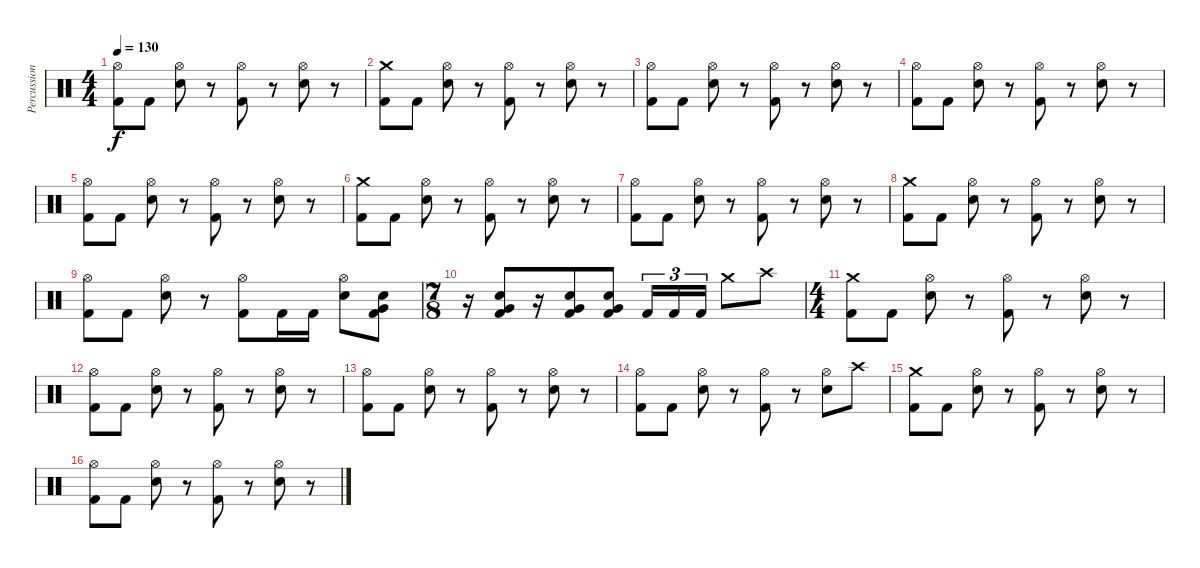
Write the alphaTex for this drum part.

\track ("Percussions" "Percussion") {instrument percussion}
\staff {score}
\articulation defaults
\ts (4 4)
\tempo 130
\clef neutral
\ks c
("Hi-Hat (open)" "Kick (hit) 2").8{dy f} "Kick (hit) 2".8 ("Hi-Hat (open)" "Electric Snare (hit)").8 r.8 ("Hi-Hat (open)" "Kick (hit) 2").8 r.8 ("Hi-Hat (open)" "Electric Snare (hit)").8 r.8 |
("Crash medium (hit)" "Kick (hit) 2").8{volume 14} "Kick (hit) 2".8 ("Hi-Hat (open)" "Electric Snare (hit)").8 r.8 ("Hi-Hat (open)" "Kick (hit) 2").8 r.8 ("Hi-Hat (open)" "Electric Snare (hit)").8 r.8 |
("Hi-Hat (open)" "Kick (hit) 2").8 "Kick (hit) 2".8 ("Hi-Hat (open)" "Electric Snare (hit)").8 r.8 ("Hi-Hat (open)" "Kick (hit) 2").8 r.8 ("Hi-Hat (open)" "Electric Snare (hit)").8 r.8 |
("Hi-Hat (open)" "Kick (hit) 2").8 "Kick (hit) 2".8 ("Hi-Hat (open)" "Electric Snare (hit)").8 r.8 ("Hi-Hat (open)" "Kick (hit) 2").8 r.8 ("Hi-Hat (open)" "Electric Snare (hit)").8 r.8 |
("Hi-Hat (open)" "Kick (hit) 2").8 "Kick (hit) 2".8 ("Hi-Hat (open)" "Electric Snare (hit)").8 r.8 ("Hi-Hat (open)" "Kick (hit) 2").8 r.8 ("Hi-Hat (open)" "Electric Snare (hit)").8 r.8 |
("Crash medium (hit)" "Kick (hit) 2").8 "Kick (hit) 2".8 ("Hi-Hat (open)" "Electric Snare (hit)").8 r.8 ("Hi-Hat (open)" "Kick (hit) 2").8 r.8 ("Hi-Hat (open)" "Electric Snare (hit)").8 r.8 |
("Hi-Hat (open)" "Kick (hit) 2").8 "Kick (hit) 2".8 ("Hi-Hat (open)" "Electric Snare (hit)").8 r.8 ("Hi-Hat (open)" "Kick (hit) 2").8 r.8 ("Hi-Hat (open)" "Electric Snare (hit)").8 r.8 |
("Crash medium (hit)" "Kick (hit) 2").8 "Kick (hit) 2".8 ("Hi-Hat (open)" "Electric Snare (hit)").8 r.8 ("Hi-Hat (open)" "Kick (hit) 2").8 r.8 ("Hi-Hat (open)" "Electric Snare (hit)").8 r.8 |
("Hi-Hat (open)" "Kick (hit) 2").8 "Kick (hit) 2".8 ("Hi-Hat (open)" "Electric Snare (hit)").8 r.8 ("Hi-Hat (open)" "Kick (hit) 2").8 "Kick (hit) 2".16 "Kick (hit) 2".16 ("Hi-Hat (open)" "Electric Snare (hit)").8 ("Electric Snare (hit)" "Very Low Tom (hit)" "Kick (hit) 2").8 |
\ts (7 8)
r.16 ("Electric Snare (hit)" "Very Low Tom (hit)" "Kick (hit) 2").8 r.16 ("Electric Snare (hit)" "Very Low Tom (hit)" "Kick (hit) 2").8 ("Electric Snare (hit)" "Very Low Tom (hit)" "Kick (hit) 2").8 "Kick (hit) 2".16{tu (3 2)} "Kick (hit) 2".16{tu (3 2)} "Kick (hit) 2".16{tu (3 2)} "Crash medium (hit)".8 "Crash high (hit)".8 |
\ts (4 4)
("Crash medium (hit)" "Kick (hit) 2").8{volume 14} "Kick (hit) 2".8 ("Hi-Hat (open)" "Electric Snare (hit)").8 r.8 ("Hi-Hat (open)" "Kick (hit) 2").8 r.8 ("Hi-Hat (open)" "Electric Snare (hit)").8 r.8 |
("Hi-Hat (open)" "Kick (hit) 2").8 "Kick (hit) 2".8 ("Hi-Hat (open)" "Electric Snare (hit)").8 r.8 ("Hi-Hat (open)" "Kick (hit) 2").8 r.8 ("Hi-Hat (open)" "Electric Snare (hit)").8 r.8 |
("Hi-Hat (open)" "Kick (hit) 2").8 "Kick (hit) 2".8 ("Hi-Hat (open)" "Electric Snare (hit)").8 r.8 ("Hi-Hat (open)" "Kick (hit) 2").8 r.8 ("Hi-Hat (open)" "Electric Snare (hit)").8 r.8 |
("Hi-Hat (open)" "Kick (hit) 2").8 "Kick (hit) 2".8 ("Hi-Hat (open)" "Electric Snare (hit)").8 r.8 ("Hi-Hat (open)" "Kick (hit) 2").8 r.8 ("Hi-Hat (open)" "Electric Snare (hit)").8 "Crash high (hit)".8 |
("Crash medium (hit)" "Kick (hit) 2").8{volume 14} "Kick (hit) 2".8 ("Hi-Hat (open)" "Electric Snare (hit)").8 r.8 ("Hi-Hat (open)" "Kick (hit) 2").8 r.8 ("Hi-Hat (open)" "Electric Snare (hit)").8 r.8 |
("Hi-Hat (open)" "Kick (hit) 2").8 "Kick (hit) 2".8 ("Hi-Hat (open)" "Electric Snare (hit)").8 r.8 ("Hi-Hat (open)" "Kick (hit) 2").8 r.8 ("Hi-Hat (open)" "Electric Snare (hit)").8 r.8
